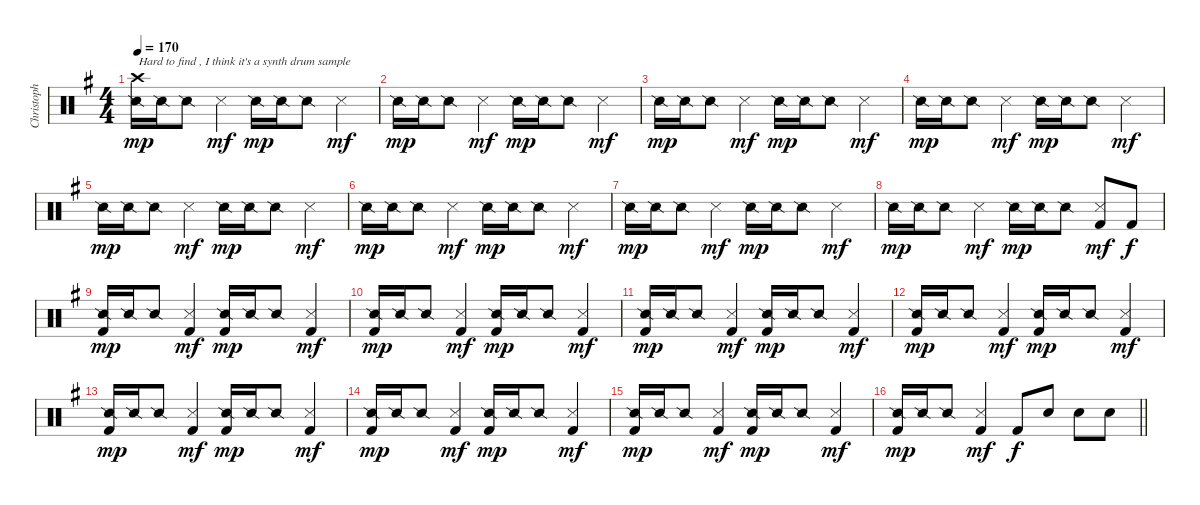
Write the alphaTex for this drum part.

\track ("Christoph Doom Schneider - Drums" "Christoph ") {instrument percussion}
\staff {score}
\articulation defaults
\ts (4 4)
\tempo 170
\clef neutral
\ks g
("Crash high (hit)" "Snare (side stick) 2").16{txt "Hard to find , I think it's a synth drum sample" dy mp} "Snare (side stick) 2".16 "Snare (side stick) 2".8 "Snare (side stick) 3".4{dy mf} "Snare (side stick) 2".16{dy mp} "Snare (side stick) 2".16 "Snare (side stick) 2".8 "Snare (side stick) 3".4{dy mf} |
"Snare (side stick) 2".16{dy mp} "Snare (side stick) 2".16 "Snare (side stick) 2".8 "Snare (side stick) 3".4{dy mf} "Snare (side stick) 2".16{dy mp} "Snare (side stick) 2".16 "Snare (side stick) 2".8 "Snare (side stick) 3".4{dy mf} |
"Snare (side stick) 2".16{dy mp} "Snare (side stick) 2".16 "Snare (side stick) 2".8 "Snare (side stick) 3".4{dy mf} "Snare (side stick) 2".16{dy mp} "Snare (side stick) 2".16 "Snare (side stick) 2".8 "Snare (side stick) 3".4{dy mf} |
"Snare (side stick) 2".16{dy mp} "Snare (side stick) 2".16 "Snare (side stick) 2".8 "Snare (side stick) 3".4{dy mf} "Snare (side stick) 2".16{dy mp} "Snare (side stick) 2".16 "Snare (side stick) 2".8 "Snare (side stick) 3".4{dy mf} |
"Snare (side stick) 2".16{dy mp} "Snare (side stick) 2".16 "Snare (side stick) 2".8 "Snare (side stick) 3".4{dy mf} "Snare (side stick) 2".16{dy mp} "Snare (side stick) 2".16 "Snare (side stick) 2".8 "Snare (side stick) 3".4{dy mf} |
"Snare (side stick) 2".16{dy mp} "Snare (side stick) 2".16 "Snare (side stick) 2".8 "Snare (side stick) 3".4{dy mf} "Snare (side stick) 2".16{dy mp} "Snare (side stick) 2".16 "Snare (side stick) 2".8 "Snare (side stick) 3".4{dy mf} |
"Snare (side stick) 2".16{dy mp} "Snare (side stick) 2".16 "Snare (side stick) 2".8 "Snare (side stick) 3".4{dy mf} "Snare (side stick) 2".16{dy mp} "Snare (side stick) 2".16 "Snare (side stick) 2".8 "Snare (side stick) 3".4{dy mf} |
"Snare (side stick) 2".16{dy mp} "Snare (side stick) 2".16 "Snare (side stick) 2".8 "Snare (side stick) 3".4{dy mf} "Snare (side stick) 2".16{dy mp} "Snare (side stick) 2".16 "Snare (side stick) 2".8 ("Snare (side stick) 3" "Kick (hit) 2").8{dy mf} "Kick (hit) 2".8{dy f} |
("Snare (side stick) 2" "Kick (hit) 2").16{dy mp} "Snare (side stick) 2".16 "Snare (side stick) 2".8 ("Snare (side stick) 3" "Kick (hit) 2").4{dy mf} ("Snare (side stick) 2" "Kick (hit) 2").16{dy mp} "Snare (side stick) 2".16 "Snare (side stick) 2".8 ("Snare (side stick) 3" "Kick (hit) 2").4{dy mf} |
("Snare (side stick) 2" "Kick (hit) 2").16{dy mp} "Snare (side stick) 2".16 "Snare (side stick) 2".8 ("Snare (side stick) 3" "Kick (hit) 2").4{dy mf} ("Snare (side stick) 2" "Kick (hit) 2").16{dy mp} "Snare (side stick) 2".16 "Snare (side stick) 2".8 ("Snare (side stick) 3" "Kick (hit) 2").4{dy mf} |
("Snare (side stick) 2" "Kick (hit) 2").16{dy mp} "Snare (side stick) 2".16 "Snare (side stick) 2".8 ("Snare (side stick) 3" "Kick (hit) 2").4{dy mf} ("Snare (side stick) 2" "Kick (hit) 2").16{dy mp} "Snare (side stick) 2".16 "Snare (side stick) 2".8 ("Snare (side stick) 3" "Kick (hit) 2").4{dy mf} |
("Snare (side stick) 2" "Kick (hit) 2").16{dy mp} "Snare (side stick) 2".16 "Snare (side stick) 2".8 ("Snare (side stick) 3" "Kick (hit) 2").4{dy mf} ("Snare (side stick) 2" "Kick (hit) 2").16{dy mp} "Snare (side stick) 2".16 "Snare (side stick) 2".8 ("Snare (side stick) 3" "Kick (hit) 2").4{dy mf} |
("Snare (side stick) 2" "Kick (hit) 2").16{dy mp} "Snare (side stick) 2".16 "Snare (side stick) 2".8 ("Snare (side stick) 3" "Kick (hit) 2").4{dy mf} ("Snare (side stick) 2" "Kick (hit) 2").16{dy mp} "Snare (side stick) 2".16 "Snare (side stick) 2".8 ("Snare (side stick) 3" "Kick (hit) 2").4{dy mf} |
("Snare (side stick) 2" "Kick (hit) 2").16{dy mp} "Snare (side stick) 2".16 "Snare (side stick) 2".8 ("Snare (side stick) 3" "Kick (hit) 2").4{dy mf} ("Snare (side stick) 2" "Kick (hit) 2").16{dy mp} "Snare (side stick) 2".16 "Snare (side stick) 2".8 ("Snare (side stick) 3" "Kick (hit) 2").4{dy mf} |
("Snare (side stick) 2" "Kick (hit) 2").16{dy mp} "Snare (side stick) 2".16 "Snare (side stick) 2".8 ("Snare (side stick) 3" "Kick (hit) 2").4{dy mf} ("Snare (side stick) 2" "Kick (hit) 2").16{dy mp} "Snare (side stick) 2".16 "Snare (side stick) 2".8 ("Snare (side stick) 3" "Kick (hit) 2").4{dy mf} |
\barLineRight lightlight
("Snare (side stick) 2" "Kick (hit) 2").16{dy mp} "Snare (side stick) 2".16 "Snare (side stick) 2".8 ("Snare (side stick) 3" "Kick (hit) 2").4{dy mf} "Kick (hit) 2".8{dy f} "Electric Snare (hit)".8 "Electric Snare (hit)".8 "Electric Snare (hit)".8
